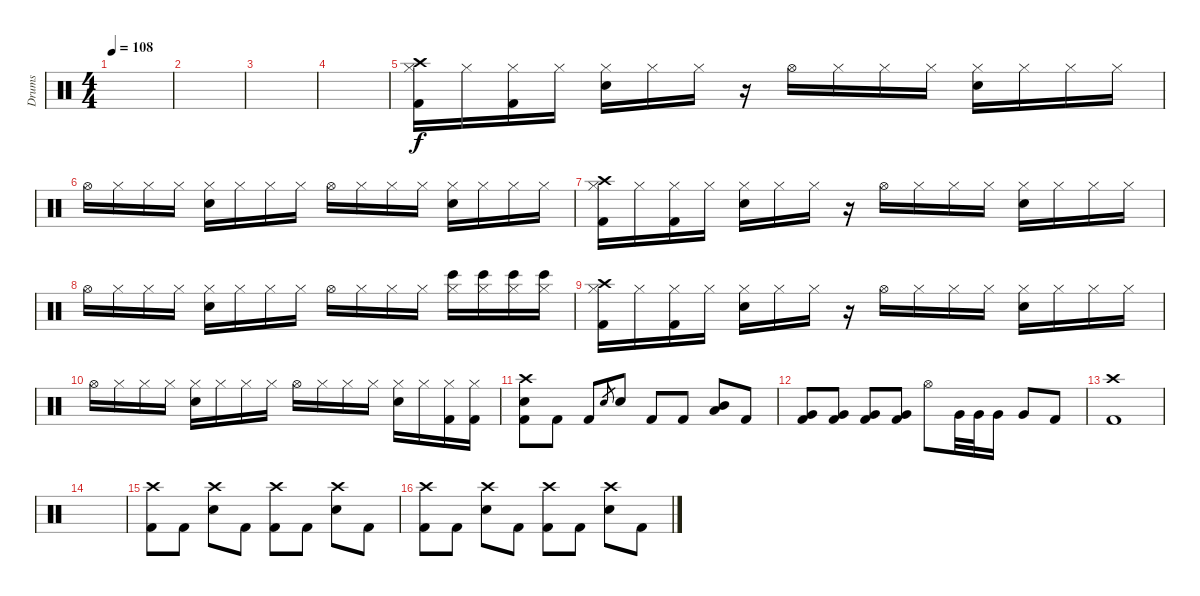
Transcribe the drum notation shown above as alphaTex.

\track ("Drums" "Drums") {instrument percussion}
\staff {score}
\articulation defaults
\ts (4 4)
\tempo 108
\clef neutral
\ks c
|
|
|
|
("Crash high (hit)" "Hi-Hat (closed)" "Kick (hit) 2").16 "Hi-Hat (closed)".16 ("Hi-Hat (closed)" "Kick (hit) 2").16 "Hi-Hat (closed)".16 ("Hi-Hat (closed)" "Electric Snare (hit)").16 "Hi-Hat (closed)".16 "Hi-Hat (closed)".16 r.16 "Hi-Hat (open)".16 "Hi-Hat (closed)".16 "Hi-Hat (closed)".16 "Hi-Hat (closed)".16 ("Hi-Hat (closed)" "Electric Snare (hit)").16 "Hi-Hat (closed)".16 "Hi-Hat (closed)".16 "Hi-Hat (closed)".16 |
"Hi-Hat (open)".16 "Hi-Hat (closed)".16 "Hi-Hat (closed)".16 "Hi-Hat (closed)".16 ("Hi-Hat (closed)" "Electric Snare (hit)").16 "Hi-Hat (closed)".16 "Hi-Hat (closed)".16 "Hi-Hat (closed)".16 "Hi-Hat (open)".16 "Hi-Hat (closed)".16 "Hi-Hat (closed)".16 "Hi-Hat (closed)".16 ("Hi-Hat (closed)" "Electric Snare (hit)").16 "Hi-Hat (closed)".16 "Hi-Hat (closed)".16 "Hi-Hat (closed)".16 |
("Crash high (hit)" "Hi-Hat (closed)" "Kick (hit) 2").16 "Hi-Hat (closed)".16 ("Hi-Hat (closed)" "Kick (hit) 2").16 "Hi-Hat (closed)".16 ("Hi-Hat (closed)" "Electric Snare (hit)").16 "Hi-Hat (closed)".16 "Hi-Hat (closed)".16 r.16 "Hi-Hat (open)".16 "Hi-Hat (closed)".16 "Hi-Hat (closed)".16 "Hi-Hat (closed)".16 ("Hi-Hat (closed)" "Electric Snare (hit)").16 "Hi-Hat (closed)".16 "Hi-Hat (closed)".16 "Hi-Hat (closed)".16 |
"Hi-Hat (open)".16 "Hi-Hat (closed)".16 "Hi-Hat (closed)".16 "Hi-Hat (closed)".16 ("Hi-Hat (closed)" "Electric Snare (hit)").16 "Hi-Hat (closed)".16 "Hi-Hat (closed)".16 "Hi-Hat (closed)".16 "Hi-Hat (open)".16 "Hi-Hat (closed)".16 "Hi-Hat (closed)".16 "Hi-Hat (closed)".16 ("Hi-Hat (closed)" "Bongo High (hit)").16 ("Hi-Hat (closed)" "Bongo High (hit)").16 ("Hi-Hat (closed)" "Bongo High (hit)").16 ("Hi-Hat (closed)" "Bongo High (hit)").16 |
("Crash high (hit)" "Hi-Hat (closed)" "Kick (hit) 2").16 "Hi-Hat (closed)".16 ("Hi-Hat (closed)" "Kick (hit) 2").16 "Hi-Hat (closed)".16 ("Hi-Hat (closed)" "Electric Snare (hit)").16 "Hi-Hat (closed)".16 "Hi-Hat (closed)".16 r.16 "Hi-Hat (open)".16 "Hi-Hat (closed)".16 "Hi-Hat (closed)".16 "Hi-Hat (closed)".16 ("Hi-Hat (closed)" "Electric Snare (hit)").16 "Hi-Hat (closed)".16 "Hi-Hat (closed)".16 "Hi-Hat (closed)".16 |
"Hi-Hat (open)".16 "Hi-Hat (closed)".16 "Hi-Hat (closed)".16 "Hi-Hat (closed)".16 ("Hi-Hat (closed)" "Electric Snare (hit)").16 "Hi-Hat (closed)".16 "Hi-Hat (closed)".16 "Hi-Hat (closed)".16 "Hi-Hat (open)".16 "Hi-Hat (closed)".16 "Hi-Hat (closed)".16 "Hi-Hat (closed)".16 ("Hi-Hat (closed)" "Electric Snare (hit)").16 "Hi-Hat (closed)".16 ("Hi-Hat (closed)" "Kick (hit) 2").16 ("Hi-Hat (closed)" "Kick (hit) 2").16 |
("Crash high (hit)" "Electric Snare (hit)" "Kick (hit) 2").8 "Kick (hit) 2".8 "Kick (hit) 2".8 "Electric Snare (hit)".8{gr} "Electric Snare (hit)".8 "Kick (hit) 2".8 "Kick (hit) 2".8 ("Mid Tom (hit)" "Low Tom (hit)").8 "Kick (hit) 2".8 |
("Very Low Tom (hit)" "Kick (hit) 2").8 ("Very Low Tom (hit)" "Kick (hit) 2").8 ("Very Low Tom (hit)" "Kick (hit) 2").8 ("Very Low Tom (hit)" "Kick (hit) 2").8 "Hi-Hat (open)".8 "Very Low Tom (hit)".32 "Very Low Tom (hit)".32 "Very Low Tom (hit)".16 "Very Low Tom (hit)".8 "Kick (hit) 2".8 |
("Crash high (hit)" "Kick (hit) 2").1 |
|
("Crash high (hit)" "Kick (hit) 2").8 "Kick (hit) 2".8 ("Crash high (hit)" "Electric Snare (hit)").8 "Kick (hit) 2".8 ("Crash high (hit)" "Kick (hit) 2").8 "Kick (hit) 2".8 ("Crash high (hit)" "Electric Snare (hit)").8 "Kick (hit) 2".8 |
("Crash high (hit)" "Kick (hit) 2").8 "Kick (hit) 2".8 ("Crash high (hit)" "Electric Snare (hit)").8 "Kick (hit) 2".8 ("Crash high (hit)" "Kick (hit) 2").8 "Kick (hit) 2".8 ("Crash high (hit)" "Electric Snare (hit)").8 "Kick (hit) 2".8
